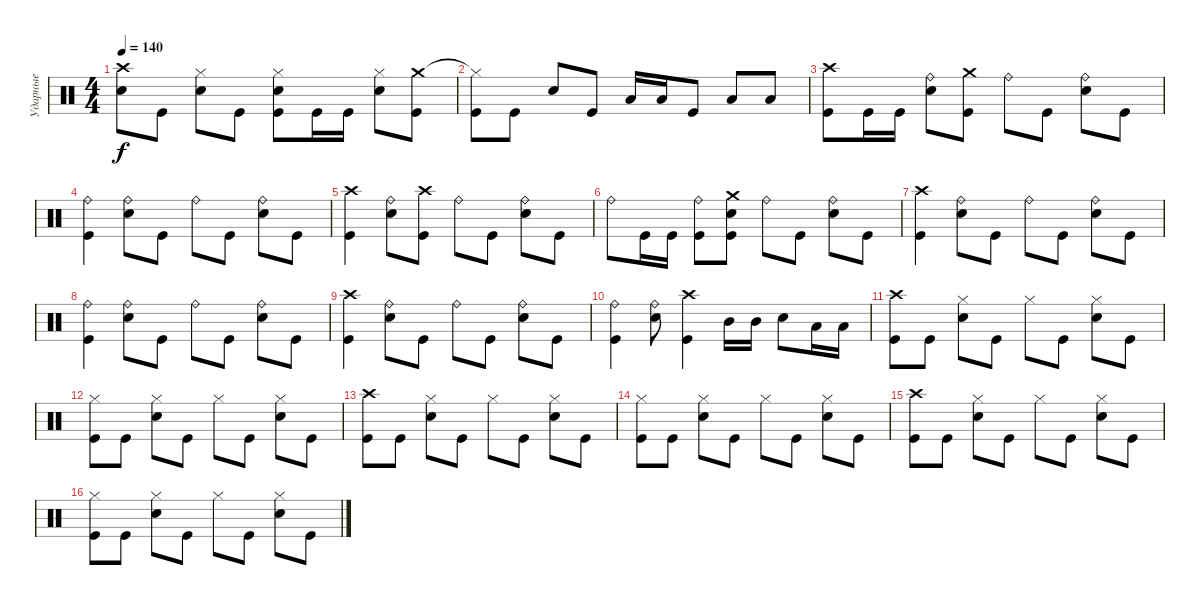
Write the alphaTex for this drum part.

\track ("Ударные" "Ударные") {instrument percussion}
\staff {score}
\articulation defaults
\ts (4 4)
\tempo 140
\clef neutral
\ks c
("Crash high (hit)" "Electric Snare (hit)").8{dy f} "Kick (hit)".8 ("Hi-Hat (closed)" "Electric Snare (hit)").8 "Kick (hit)".8 ("Hi-Hat (closed)" "Electric Snare (hit)" "Kick (hit)").8 "Kick (hit)".16 "Kick (hit)".16 ("Hi-Hat (closed)" "Electric Snare (hit)").8 ("Crash medium (hit)" "Kick (hit)").8 |
("Hi-Hat (closed)"{t} "Kick (hit)").8 "Kick (hit)".8 "Electric Snare (hit)".8 "Kick (hit)".8 "Low Tom (hit)".16 "Low Tom (hit)".16 "Kick (hit)".8 "Low Tom (hit)".8 "Low Tom (hit)".8 |
("Crash high (hit)" "Kick (hit)").8 "Kick (hit)".16 "Kick (hit)".16 ("Ride (bell)" "Electric Snare (hit)").8 ("Crash medium (hit)" "Kick (hit)").8 "Ride (bell)".8 "Kick (hit)".8 ("Ride (bell)" "Electric Snare (hit)").8 "Kick (hit)".8 |
("Ride (bell)" "Kick (hit)").4 ("Ride (bell)" "Electric Snare (hit)").8 "Kick (hit)".8 "Ride (bell)".8 "Kick (hit)".8 ("Ride (bell)" "Electric Snare (hit)").8 "Kick (hit)".8 |
("Crash high (hit)" "Kick (hit)").4 ("Ride (bell)" "Electric Snare (hit)").8 ("Crash high (hit)" "Kick (hit)").8 "Ride (bell)".8 "Kick (hit)".8 ("Ride (bell)" "Electric Snare (hit)").8 "Kick (hit)".8 |
"Ride (bell)".8 "Kick (hit)".16 "Kick (hit)".16 ("Ride (bell)" "Kick (hit)").8 ("Crash medium (hit)" "Electric Snare (hit)" "Kick (hit)").8 "Ride (bell)".8 "Kick (hit)".8 ("Ride (bell)" "Electric Snare (hit)").8 "Kick (hit)".8 |
("Crash high (hit)" "Kick (hit)").4 ("Ride (bell)" "Electric Snare (hit)").8 "Kick (hit)".8 "Ride (bell)".8 "Kick (hit)".8 ("Ride (bell)" "Electric Snare (hit)").8 "Kick (hit)".8 |
("Ride (bell)" "Kick (hit)").4 ("Ride (bell)" "Electric Snare (hit)").8 "Kick (hit)".8 "Ride (bell)".8 "Kick (hit)".8 ("Ride (bell)" "Electric Snare (hit)").8 "Kick (hit)".8 |
("Crash high (hit)" "Kick (hit)").4 ("Ride (bell)" "Electric Snare (hit)").8 "Kick (hit)".8 "Ride (bell)".8 "Kick (hit)".8 ("Ride (bell)" "Electric Snare (hit)").8 "Kick (hit)".8 |
("Ride (bell)" "Kick (hit)").4 ("Ride (bell)" "Electric Snare (hit)").8 ("Crash high (hit)" "Kick (hit)").4 "Mid Tom (hit)".16 "Mid Tom (hit)".16 "Electric Snare (hit)".8 "Low Tom (hit)".16 "Low Tom (hit)".16 |
("Crash high (hit)" "Kick (hit)").8 "Kick (hit)".8 ("Hi-Hat (closed)" "Electric Snare (hit)").8 "Kick (hit)".8 "Hi-Hat (closed)".8 "Kick (hit)".8 ("Hi-Hat (closed)" "Electric Snare (hit)").8 "Kick (hit)".8 |
("Hi-Hat (closed)" "Kick (hit)").8 "Kick (hit)".8 ("Hi-Hat (closed)" "Electric Snare (hit)").8 "Kick (hit)".8 "Hi-Hat (closed)".8 "Kick (hit)".8 ("Hi-Hat (closed)" "Electric Snare (hit)").8 "Kick (hit)".8 |
("Crash high (hit)" "Kick (hit)").8 "Kick (hit)".8 ("Hi-Hat (closed)" "Electric Snare (hit)").8 "Kick (hit)".8 "Hi-Hat (closed)".8 "Kick (hit)".8 ("Hi-Hat (closed)" "Electric Snare (hit)").8 "Kick (hit)".8 |
("Hi-Hat (closed)" "Kick (hit)").8 "Kick (hit)".8 ("Hi-Hat (closed)" "Electric Snare (hit)").8 "Kick (hit)".8 "Hi-Hat (closed)".8 "Kick (hit)".8 ("Hi-Hat (closed)" "Electric Snare (hit)").8 "Kick (hit)".8 |
("Crash high (hit)" "Kick (hit)").8 "Kick (hit)".8 ("Hi-Hat (closed)" "Electric Snare (hit)").8 "Kick (hit)".8 "Hi-Hat (closed)".8 "Kick (hit)".8 ("Hi-Hat (closed)" "Electric Snare (hit)").8 "Kick (hit)".8 |
("Hi-Hat (closed)" "Kick (hit)").8 "Kick (hit)".8 ("Hi-Hat (closed)" "Electric Snare (hit)").8 "Kick (hit)".8 "Hi-Hat (closed)".8 "Kick (hit)".8 ("Hi-Hat (closed)" "Electric Snare (hit)").8 "Kick (hit)".8
